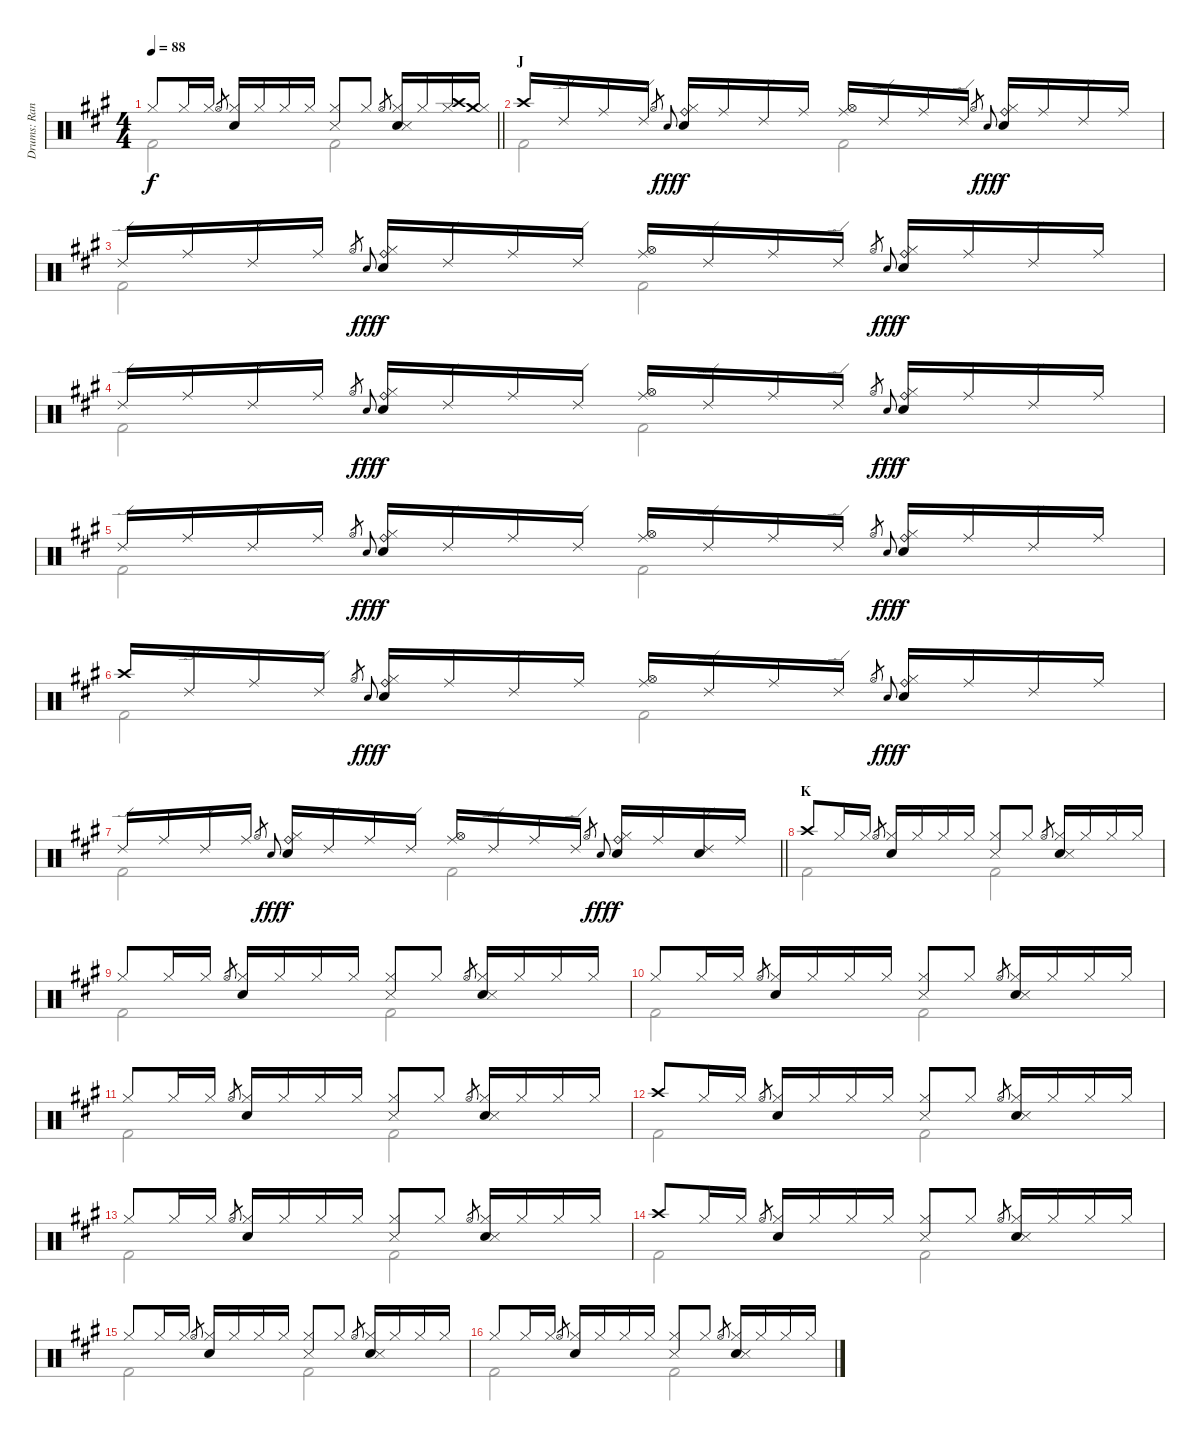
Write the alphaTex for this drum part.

\track ("Drums: Randy" "Drums: Ran") {instrument percussion}
\staff {score}
\articulation defaults
\voice
\ts (4 4)
\tempo 88
\clef neutral
\barLineRight lightlight
\ks a "Hi-Hat (closed)".8{dy f} "Hi-Hat (closed)".16 "Hi-Hat (closed)".16 "Hi-Hat (open)".8{gr}
("Hi-Hat (closed)" "Electric Snare (hit)").16 "Hi-Hat (closed)".16 "Hi-Hat (closed)".16 "Hi-Hat (closed)".16 ("Hi-Hat (closed)" "Snare (side stick) 3").8 "Hi-Hat (closed)".8 "Hi-Hat (open)".8{gr} ("Hi-Hat (closed)" "Electric Snare (hit)" "Snare (side stick) 3").16 "Hi-Hat (closed)".16 ("Crash high (hit)" "Hi-Hat (closed)").16 ("Crash medium (hit)" "Hi-Hat (closed)").16 |
\section ("" "J")
"Crash high (hit)".16 "Ride (edge) 2".16 "Ride (middle)".16 "Ride (edge) 2".16 "Hi-Hat (open)".16{gr} "Electric Snare (hit)".16{gr onbeat dy fff} ("Ride (bell)" "Hi-Hat (closed)" "Snare (hit) 2").16{dy f} "Ride (middle)".16 "Ride (edge) 2".16 "Ride (middle)".16 ("Ride (middle)" "Hi-Hat (open)").16 "Ride (edge) 2".16 "Ride (middle)".16 "Ride (edge) 2".16 "Hi-Hat (open)".16{gr} "Electric Snare (hit)".16{gr onbeat dy fff} ("Ride (bell)" "Hi-Hat (closed)" "Snare (hit) 2").16{dy f} "Ride (middle)".16 "Ride (edge) 2".16 "Ride (middle)".16 |
"Ride (edge) 2".16 "Ride (middle)".16 "Ride (edge) 2".16 "Ride (middle)".16 "Hi-Hat (open)".16{gr} "Electric Snare (hit)".16{gr onbeat dy fff} ("Ride (bell)" "Hi-Hat (closed)" "Snare (hit) 2").16{dy f} "Ride (edge) 2".16 "Ride (middle)".16 "Ride (edge) 2".16 ("Ride (middle)" "Hi-Hat (open)").16 "Ride (edge) 2".16 "Ride (middle)".16 "Ride (edge) 2".16 "Hi-Hat (open)".16{gr} "Electric Snare (hit)".16{gr onbeat dy fff} ("Ride (bell)" "Hi-Hat (closed)" "Snare (hit) 2").16{dy f} "Ride (middle)".16 "Ride (edge) 2".16 "Ride (middle)".16 |
"Ride (edge) 2".16 "Ride (middle)".16 "Ride (edge) 2".16 "Ride (middle)".16 "Hi-Hat (open)".16{gr} "Electric Snare (hit)".16{gr onbeat dy fff} ("Ride (bell)" "Hi-Hat (closed)" "Snare (hit) 2").16{dy f} "Ride (edge) 2".16 "Ride (middle)".16 "Ride (edge) 2".16 ("Ride (middle)" "Hi-Hat (open)").16 "Ride (edge) 2".16 "Ride (middle)".16 "Ride (edge) 2".16 "Hi-Hat (open)".16{gr} "Electric Snare (hit)".16{gr onbeat dy fff} ("Ride (bell)" "Hi-Hat (closed)" "Snare (hit) 2").16{dy f} "Ride (middle)".16 "Ride (edge) 2".16 "Ride (middle)".16 |
"Ride (edge) 2".16 "Ride (middle)".16 "Ride (edge) 2".16 "Ride (middle)".16 "Hi-Hat (open)".16{gr} "Electric Snare (hit)".16{gr onbeat dy fff} ("Ride (bell)" "Hi-Hat (closed)" "Snare (hit) 2").16{dy f} "Ride (edge) 2".16 "Ride (middle)".16 "Ride (edge) 2".16 ("Ride (middle)" "Hi-Hat (open)").16 "Ride (edge) 2".16 "Ride (middle)".16 "Ride (edge) 2".16 "Hi-Hat (open)".16{gr} "Electric Snare (hit)".16{gr onbeat dy fff} ("Ride (bell)" "Hi-Hat (closed)" "Snare (hit) 2").16{dy f} "Ride (middle)".16 "Ride (edge) 2".16 "Ride (middle)".16 |
"Crash high (hit)".16 "Ride (edge) 2".16 "Ride (middle)".16 "Ride (edge) 2".16 "Hi-Hat (open)".16{gr} "Electric Snare (hit)".16{gr onbeat dy fff} ("Ride (bell)" "Hi-Hat (closed)" "Snare (hit) 2").16{dy f} "Ride (middle)".16 "Ride (edge) 2".16 "Ride (middle)".16 ("Ride (middle)" "Hi-Hat (open)").16 "Ride (edge) 2".16 "Ride (middle)".16 "Ride (edge) 2".16 "Hi-Hat (open)".16{gr} "Electric Snare (hit)".16{gr onbeat dy fff} ("Ride (bell)" "Hi-Hat (closed)" "Snare (hit) 2").16{dy f} "Ride (middle)".16 "Ride (edge) 2".16 "Ride (middle)".16 |
\barLineRight lightlight "Ride (edge) 2".16 "Ride (middle)".16 "Ride (edge) 2".16 "Ride (middle)".16 "Hi-Hat (open)".16{gr} "Electric Snare (hit)".16{gr onbeat dy fff}
("Ride (bell)" "Hi-Hat (closed)" "Snare (hit) 2").16{dy f} "Ride (edge) 2".16 "Ride (middle)".16 "Ride (edge) 2".16 ("Ride (middle)" "Hi-Hat (open)").16 "Ride (edge) 2".16 "Ride (middle)".16 "Ride (edge) 2".16 "Hi-Hat (open)".16{gr} "Electric Snare (hit)".16{gr onbeat dy fff} ("Ride (bell)" "Hi-Hat (closed)" "Snare (hit) 2").16{dy f} "Ride (middle)".16 ("Ride (edge) 2" "Snare (hit) 2").16 "Ride (middle)".16 |
\section ("" "K")
"Crash high (hit)".8 "Hi-Hat (closed)".16 "Hi-Hat (closed)".16 "Hi-Hat (open)".8{gr} ("Hi-Hat (closed)" "Electric Snare (hit)").16 "Hi-Hat (closed)".16 "Hi-Hat (closed)".16 "Hi-Hat (closed)".16 ("Hi-Hat (closed)" "Snare (side stick) 3").8 "Hi-Hat (closed)".8 "Hi-Hat (open)".8{gr} ("Hi-Hat (closed)" "Electric Snare (hit)" "Snare (side stick) 3").16 "Hi-Hat (closed)".16 "Hi-Hat (closed)".16 "Hi-Hat (closed)".16 |
"Hi-Hat (closed)".8 "Hi-Hat (closed)".16 "Hi-Hat (closed)".16 "Hi-Hat (open)".8{gr} ("Hi-Hat (closed)" "Electric Snare (hit)").16 "Hi-Hat (closed)".16 "Hi-Hat (closed)".16 "Hi-Hat (closed)".16 ("Hi-Hat (closed)" "Snare (side stick) 3").8 "Hi-Hat (closed)".8 "Hi-Hat (open)".8{gr} ("Hi-Hat (closed)" "Electric Snare (hit)" "Snare (side stick) 3").16 "Hi-Hat (closed)".16 "Hi-Hat (closed)".16 "Hi-Hat (closed)".16 |
"Hi-Hat (closed)".8 "Hi-Hat (closed)".16 "Hi-Hat (closed)".16 "Hi-Hat (open)".8{gr} ("Hi-Hat (closed)" "Electric Snare (hit)").16 "Hi-Hat (closed)".16 "Hi-Hat (closed)".16 "Hi-Hat (closed)".16 ("Hi-Hat (closed)" "Snare (side stick) 3").8 "Hi-Hat (closed)".8 "Hi-Hat (open)".8{gr} ("Hi-Hat (closed)" "Electric Snare (hit)" "Snare (side stick) 3").16 "Hi-Hat (closed)".16 "Hi-Hat (closed)".16 "Hi-Hat (closed)".16 |
"Hi-Hat (closed)".8 "Hi-Hat (closed)".16 "Hi-Hat (closed)".16 "Hi-Hat (open)".8{gr} ("Hi-Hat (closed)" "Electric Snare (hit)").16 "Hi-Hat (closed)".16 "Hi-Hat (closed)".16 "Hi-Hat (closed)".16 ("Hi-Hat (closed)" "Snare (side stick) 3").8 "Hi-Hat (closed)".8 "Hi-Hat (open)".8{gr} ("Hi-Hat (closed)" "Electric Snare (hit)" "Snare (side stick) 3").16 "Hi-Hat (closed)".16 "Hi-Hat (closed)".16 "Hi-Hat (closed)".16 |
"Crash high (hit)".8 "Hi-Hat (closed)".16 "Hi-Hat (closed)".16 "Hi-Hat (open)".8{gr} ("Hi-Hat (closed)" "Electric Snare (hit)").16 "Hi-Hat (closed)".16 "Hi-Hat (closed)".16 "Hi-Hat (closed)".16 ("Hi-Hat (closed)" "Snare (side stick) 3").8 "Hi-Hat (closed)".8 "Hi-Hat (open)".8{gr} ("Hi-Hat (closed)" "Electric Snare (hit)" "Snare (side stick) 3").16 "Hi-Hat (closed)".16 "Hi-Hat (closed)".16 "Hi-Hat (closed)".16 |
"Hi-Hat (closed)".8 "Hi-Hat (closed)".16 "Hi-Hat (closed)".16 "Hi-Hat (open)".8{gr} ("Hi-Hat (closed)" "Electric Snare (hit)").16 "Hi-Hat (closed)".16 "Hi-Hat (closed)".16 "Hi-Hat (closed)".16 ("Hi-Hat (closed)" "Snare (side stick) 3").8 "Hi-Hat (closed)".8 "Hi-Hat (open)".8{gr} ("Hi-Hat (closed)" "Electric Snare (hit)" "Snare (side stick) 3").16 "Hi-Hat (closed)".16 "Hi-Hat (closed)".16 "Hi-Hat (closed)".16 |
"Crash high (hit)".8 "Hi-Hat (closed)".16 "Hi-Hat (closed)".16 "Hi-Hat (open)".8{gr} ("Hi-Hat (closed)" "Electric Snare (hit)").16 "Hi-Hat (closed)".16 "Hi-Hat (closed)".16 "Hi-Hat (closed)".16 ("Hi-Hat (closed)" "Snare (side stick) 3").8 "Hi-Hat (closed)".8 "Hi-Hat (open)".8{gr} ("Hi-Hat (closed)" "Electric Snare (hit)" "Snare (side stick) 3").16 "Hi-Hat (closed)".16 "Hi-Hat (closed)".16 "Hi-Hat (closed)".16 |
"Hi-Hat (closed)".8 "Hi-Hat (closed)".16 "Hi-Hat (closed)".16 "Hi-Hat (open)".8{gr} ("Hi-Hat (closed)" "Electric Snare (hit)").16 "Hi-Hat (closed)".16 "Hi-Hat (closed)".16 "Hi-Hat (closed)".16 ("Hi-Hat (closed)" "Snare (side stick) 3").8 "Hi-Hat (closed)".8 "Hi-Hat (open)".8{gr} ("Hi-Hat (closed)" "Electric Snare (hit)" "Snare (side stick) 3").16 "Hi-Hat (closed)".16 "Hi-Hat (closed)".16 "Hi-Hat (closed)".16 |
"Hi-Hat (closed)".8 "Hi-Hat (closed)".16 "Hi-Hat (closed)".16 "Hi-Hat (open)".8{gr} ("Hi-Hat (closed)" "Electric Snare (hit)").16 "Hi-Hat (closed)".16 "Hi-Hat (closed)".16 "Hi-Hat (closed)".16 ("Hi-Hat (closed)" "Snare (side stick) 3").8 "Hi-Hat (closed)".8 "Hi-Hat (open)".8{gr} ("Hi-Hat (closed)" "Electric Snare (hit)" "Snare (side stick) 3").16 "Hi-Hat (closed)".16 "Hi-Hat (closed)".16 "Hi-Hat (closed)".16
\voice
\clef neutral
\ottava regular
\simile none
\barLineRight lightlight
\ks a "Kick (hit) 2".2{dy f} "Kick (hit) 2".2
|
"Kick (hit) 2".2 "Kick (hit) 2".2 |
"Kick (hit) 2".2 "Kick (hit) 2".2 |
"Kick (hit) 2".2 "Kick (hit) 2".2 |
"Kick (hit) 2".2 "Kick (hit) 2".2 |
"Kick (hit) 2".2 "Kick (hit) 2".2 |
\barLineRight lightlight "Kick (hit) 2".2 "Kick (hit) 2".2
|
"Kick (hit) 2".2 "Kick (hit) 2".2 |
"Kick (hit) 2".2 "Kick (hit) 2".2 |
"Kick (hit) 2".2 "Kick (hit) 2".2 |
"Kick (hit) 2".2 "Kick (hit) 2".2 |
"Kick (hit) 2".2 "Kick (hit) 2".2 |
"Kick (hit) 2".2 "Kick (hit) 2".2 |
"Kick (hit) 2".2 "Kick (hit) 2".2 |
"Kick (hit) 2".2 "Kick (hit) 2".2 |
"Kick (hit) 2".2 "Kick (hit) 2".2
